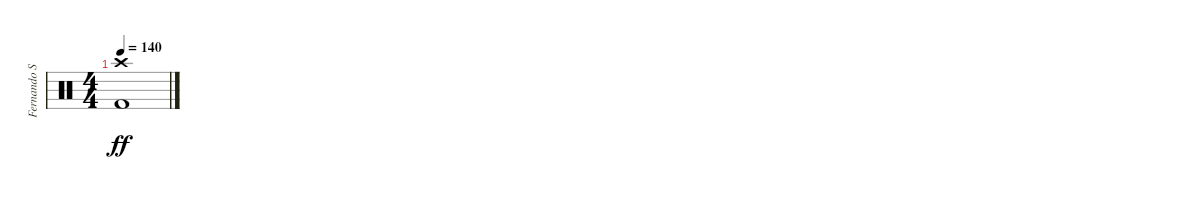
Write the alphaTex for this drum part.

\track ("Fernando Scarcella" "Fernando S") {instrument percussion}
\staff {score}
\articulation defaults
\ts (4 4)
\tempo 140
\clef neutral
\ks c
("Crash high (hit)" "Kick (hit) 2").1{dy ff}
